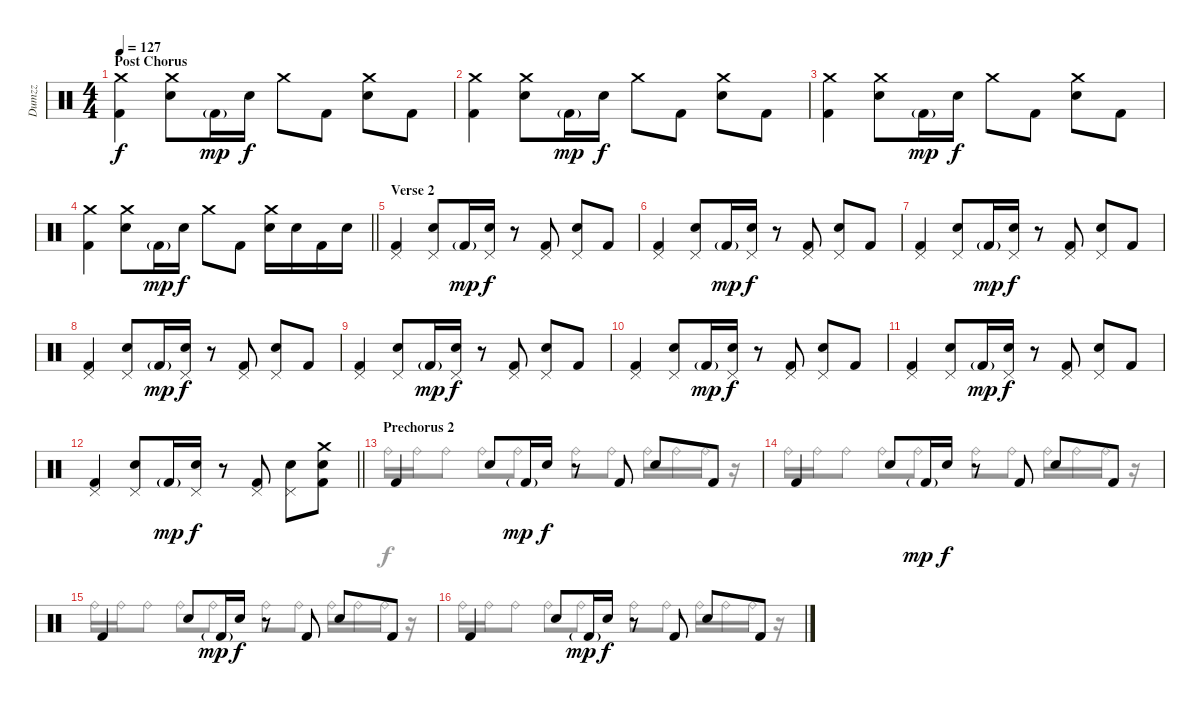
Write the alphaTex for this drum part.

\track ("Dumzz" "Dumzz") {instrument percussion}
\staff {score}
\articulation defaults
\voice
\ts (4 4)
\section ("" "Post Chorus")
\tempo 127
\clef neutral
\ks c
("Crash medium (hit)" "Kick (hit) 2").4{dy f} ("Crash medium (hit)" "Snare (hit) 2").8 "Kick (hit) 2"{g}.16{dy mp} "Snare (hit) 2".16{dy f} "Crash medium (hit)".8 "Kick (hit) 2".8 ("Crash medium (hit)" "Snare (hit) 2").8 "Kick (hit) 2".8 |
("Crash medium (hit)" "Kick (hit) 2").4 ("Crash medium (hit)" "Snare (hit) 2").8 "Kick (hit) 2"{g}.16{dy mp} "Snare (hit) 2".16{dy f} "Crash medium (hit)".8 "Kick (hit) 2".8 ("Crash medium (hit)" "Snare (hit) 2").8 "Kick (hit) 2".8 |
("Crash medium (hit)" "Kick (hit) 2").4 ("Crash medium (hit)" "Snare (hit) 2").8 "Kick (hit) 2"{g}.16{dy mp} "Snare (hit) 2".16{dy f} "Crash medium (hit)".8 "Kick (hit) 2".8 ("Crash medium (hit)" "Snare (hit) 2").8 "Kick (hit) 2".8 |
\barLineRight lightlight
("Crash medium (hit)" "Kick (hit) 2").4 ("Crash medium (hit)" "Snare (hit) 2").8 "Kick (hit) 2"{g}.16{dy mp} "Snare (hit) 2".16{dy f} "Crash medium (hit)".8 "Kick (hit) 2".8 ("Crash medium (hit)" "Snare (hit) 2").16 "Snare (hit) 2".16 "Kick (hit) 2".16 "Snare (hit) 2".16 |
\section ("" "Verse 2")
("Pedal Hi-Hat (hit)" "Kick (hit) 2").4 ("Pedal Hi-Hat (hit)" "Snare (hit) 2").8 "Kick (hit) 2"{g}.16{dy mp} ("Pedal Hi-Hat (hit)" "Snare (hit) 2").16{dy f} r.8 ("Pedal Hi-Hat (hit)" "Kick (hit) 2").8 ("Pedal Hi-Hat (hit)" "Snare (hit) 2").8 "Kick (hit) 2".8 |
("Pedal Hi-Hat (hit)" "Kick (hit) 2").4 ("Pedal Hi-Hat (hit)" "Snare (hit) 2").8 "Kick (hit) 2"{g}.16{dy mp} ("Pedal Hi-Hat (hit)" "Snare (hit) 2").16{dy f} r.8 ("Pedal Hi-Hat (hit)" "Kick (hit) 2").8 ("Pedal Hi-Hat (hit)" "Snare (hit) 2").8 "Kick (hit) 2".8 |
("Pedal Hi-Hat (hit)" "Kick (hit) 2").4 ("Pedal Hi-Hat (hit)" "Snare (hit) 2").8 "Kick (hit) 2"{g}.16{dy mp} ("Pedal Hi-Hat (hit)" "Snare (hit) 2").16{dy f} r.8 ("Pedal Hi-Hat (hit)" "Kick (hit) 2").8 ("Pedal Hi-Hat (hit)" "Snare (hit) 2").8 "Kick (hit) 2".8 |
("Pedal Hi-Hat (hit)" "Kick (hit) 2").4 ("Pedal Hi-Hat (hit)" "Snare (hit) 2").8 "Kick (hit) 2"{g}.16{dy mp} ("Pedal Hi-Hat (hit)" "Snare (hit) 2").16{dy f} r.8 ("Pedal Hi-Hat (hit)" "Kick (hit) 2").8 ("Pedal Hi-Hat (hit)" "Snare (hit) 2").8 "Kick (hit) 2".8 |
("Pedal Hi-Hat (hit)" "Kick (hit) 2").4 ("Pedal Hi-Hat (hit)" "Snare (hit) 2").8 "Kick (hit) 2"{g}.16{dy mp} ("Pedal Hi-Hat (hit)" "Snare (hit) 2").16{dy f} r.8 ("Pedal Hi-Hat (hit)" "Kick (hit) 2").8 ("Pedal Hi-Hat (hit)" "Snare (hit) 2").8 "Kick (hit) 2".8 |
("Pedal Hi-Hat (hit)" "Kick (hit) 2").4 ("Pedal Hi-Hat (hit)" "Snare (hit) 2").8 "Kick (hit) 2"{g}.16{dy mp} ("Pedal Hi-Hat (hit)" "Snare (hit) 2").16{dy f} r.8 ("Pedal Hi-Hat (hit)" "Kick (hit) 2").8 ("Pedal Hi-Hat (hit)" "Snare (hit) 2").8 "Kick (hit) 2".8 |
("Pedal Hi-Hat (hit)" "Kick (hit) 2").4 ("Pedal Hi-Hat (hit)" "Snare (hit) 2").8 "Kick (hit) 2"{g}.16{dy mp} ("Pedal Hi-Hat (hit)" "Snare (hit) 2").16{dy f} r.8 ("Pedal Hi-Hat (hit)" "Kick (hit) 2").8 ("Pedal Hi-Hat (hit)" "Snare (hit) 2").8 "Kick (hit) 2".8 |
\barLineRight lightlight
("Pedal Hi-Hat (hit)" "Kick (hit) 2").4 ("Pedal Hi-Hat (hit)" "Snare (hit) 2").8 "Kick (hit) 2"{g}.16{dy mp} ("Pedal Hi-Hat (hit)" "Snare (hit) 2").16{dy f} r.8 ("Pedal Hi-Hat (hit)" "Kick (hit) 2").8 ("Pedal Hi-Hat (hit)" "Snare (hit) 2").8 ("Crash medium (hit)" "Snare (hit) 2" "Kick (hit) 2").8 |
\section ("" "Prechorus 2")
"Kick (hit) 2".4 "Snare (hit) 2".8 "Kick (hit) 2"{g}.16{dy mp} "Snare (hit) 2".16{dy f} r.8 "Kick (hit) 2".8 "Snare (hit) 2".8 "Kick (hit) 2".8 |
"Kick (hit) 2".4 "Snare (hit) 2".8 "Kick (hit) 2"{g}.16{dy mp} "Snare (hit) 2".16{dy f} r.8 "Kick (hit) 2".8 "Snare (hit) 2".8 "Kick (hit) 2".8 |
"Kick (hit) 2".4 "Snare (hit) 2".8 "Kick (hit) 2"{g}.16{dy mp} "Snare (hit) 2".16{dy f} r.8 "Kick (hit) 2".8 "Snare (hit) 2".8 "Kick (hit) 2".8 |
"Kick (hit) 2".4 "Snare (hit) 2".8 "Kick (hit) 2"{g}.16{dy mp} "Snare (hit) 2".16{dy f} r.8 "Kick (hit) 2".8 "Snare (hit) 2".8 "Kick (hit) 2".8
\voice
\clef neutral
\ottava regular
\simile none
\ks c
|
|
|
\barLineRight lightlight
|
|
|
|
|
|
|
|
\barLineRight lightlight
|
"Ride (bell)".16 "Ride (bell)".16 "Ride (bell)".8 "Ride (bell)".8 "Ride (bell)".8 "Ride (bell)".8 "Ride (bell)".8 "Ride (bell)".16 "Ride (bell)".16 "Ride (bell)".16 r.16 |
"Ride (bell)".16 "Ride (bell)".16 "Ride (bell)".8 "Ride (bell)".8 "Ride (bell)".8 "Ride (bell)".8 "Ride (bell)".8 "Ride (bell)".16 "Ride (bell)".16 "Ride (bell)".16 r.16 |
"Ride (bell)".16 "Ride (bell)".16 "Ride (bell)".8 "Ride (bell)".8 "Ride (bell)".8 "Ride (bell)".8 "Ride (bell)".8 "Ride (bell)".16 "Ride (bell)".16 "Ride (bell)".16 r.16 |
"Ride (bell)".16 "Ride (bell)".16 "Ride (bell)".8 "Ride (bell)".8 "Ride (bell)".8 "Ride (bell)".8 "Ride (bell)".8 "Ride (bell)".16 "Ride (bell)".16 "Ride (bell)".16 r.16
